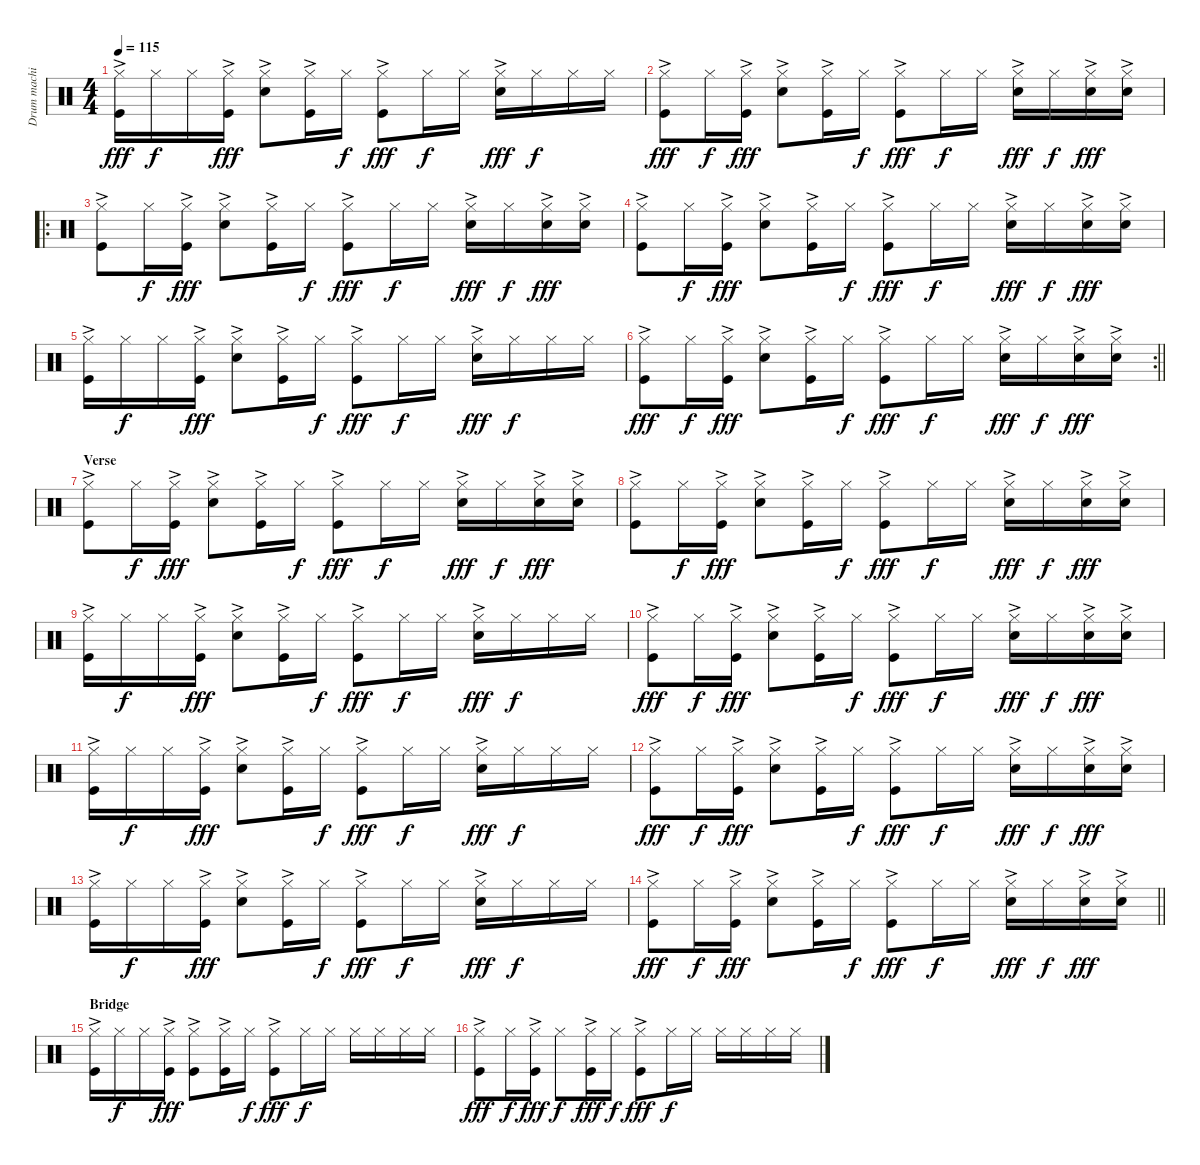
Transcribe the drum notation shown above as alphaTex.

\track ("Drum machine" "Drum machi") {instrument percussion}
\staff {score}
\articulation defaults
\ts (4 4)
\tempo 115
\clef neutral
\ks c
("Hi-Hat (closed)" "Kick (hit)"{ac}).16{dy fff} "Hi-Hat (closed)".16{dy f} "Hi-Hat (closed)".16 ("Hi-Hat (closed)" "Kick (hit)"{ac}).16{dy fff} ("Hi-Hat (closed)" "Snare (hit) 2"{ac}).8 ("Hi-Hat (closed)" "Kick (hit)"{ac}).16 "Hi-Hat (closed)".16{dy f} ("Hi-Hat (closed)" "Kick (hit)"{ac}).8{dy fff} "Hi-Hat (closed)".16{dy f} "Hi-Hat (closed)".16 ("Hi-Hat (closed)" "Snare (hit) 2"{ac}).16{dy fff} "Hi-Hat (closed)".16{dy f} "Hi-Hat (closed)".16 "Hi-Hat (closed)".16 |
("Hi-Hat (closed)" "Kick (hit)"{ac}).8{dy fff} "Hi-Hat (closed)".16{dy f} ("Hi-Hat (closed)" "Kick (hit)"{ac}).16{dy fff} ("Hi-Hat (closed)" "Snare (hit) 2"{ac}).8 ("Hi-Hat (closed)" "Kick (hit)"{ac}).16 "Hi-Hat (closed)".16{dy f} ("Hi-Hat (closed)" "Kick (hit)"{ac}).8{dy fff} "Hi-Hat (closed)".16{dy f} "Hi-Hat (closed)".16 ("Hi-Hat (closed)" "Snare (hit) 2"{ac}).16{dy fff} "Hi-Hat (closed)".16{dy f} ("Hi-Hat (closed)" "Snare (hit) 2"{ac}).16{dy fff} ("Hi-Hat (closed)" "Snare (hit) 2"{ac}).16 |
\ro
("Hi-Hat (closed)" "Kick (hit)"{ac}).8 "Hi-Hat (closed)".16{dy f} ("Hi-Hat (closed)" "Kick (hit)"{ac}).16{dy fff} ("Hi-Hat (closed)" "Snare (hit) 2"{ac}).8 ("Hi-Hat (closed)" "Kick (hit)"{ac}).16 "Hi-Hat (closed)".16{dy f} ("Hi-Hat (closed)" "Kick (hit)"{ac}).8{dy fff} "Hi-Hat (closed)".16{dy f} "Hi-Hat (closed)".16 ("Hi-Hat (closed)" "Snare (hit) 2"{ac}).16{dy fff} "Hi-Hat (closed)".16{dy f} ("Hi-Hat (closed)" "Snare (hit) 2"{ac}).16{dy fff} ("Hi-Hat (closed)" "Snare (hit) 2"{ac}).16 |
("Hi-Hat (closed)" "Kick (hit)"{ac}).8 "Hi-Hat (closed)".16{dy f} ("Hi-Hat (closed)" "Kick (hit)"{ac}).16{dy fff} ("Hi-Hat (closed)" "Snare (hit) 2"{ac}).8 ("Hi-Hat (closed)" "Kick (hit)"{ac}).16 "Hi-Hat (closed)".16{dy f} ("Hi-Hat (closed)" "Kick (hit)"{ac}).8{dy fff} "Hi-Hat (closed)".16{dy f} "Hi-Hat (closed)".16 ("Hi-Hat (closed)" "Snare (hit) 2"{ac}).16{dy fff} "Hi-Hat (closed)".16{dy f} ("Hi-Hat (closed)" "Snare (hit) 2"{ac}).16{dy fff} ("Hi-Hat (closed)" "Snare (hit) 2"{ac}).16 |
("Hi-Hat (closed)" "Kick (hit)"{ac}).16 "Hi-Hat (closed)".16{dy f} "Hi-Hat (closed)".16 ("Hi-Hat (closed)" "Kick (hit)"{ac}).16{dy fff} ("Hi-Hat (closed)" "Snare (hit) 2"{ac}).8 ("Hi-Hat (closed)" "Kick (hit)"{ac}).16 "Hi-Hat (closed)".16{dy f} ("Hi-Hat (closed)" "Kick (hit)"{ac}).8{dy fff} "Hi-Hat (closed)".16{dy f} "Hi-Hat (closed)".16 ("Hi-Hat (closed)" "Snare (hit) 2"{ac}).16{dy fff} "Hi-Hat (closed)".16{dy f} "Hi-Hat (closed)".16 "Hi-Hat (closed)".16 |
\rc 2
\barLineRight lightlight
("Hi-Hat (closed)" "Kick (hit)"{ac}).8{dy fff} "Hi-Hat (closed)".16{dy f} ("Hi-Hat (closed)" "Kick (hit)"{ac}).16{dy fff} ("Hi-Hat (closed)" "Snare (hit) 2"{ac}).8 ("Hi-Hat (closed)" "Kick (hit)"{ac}).16 "Hi-Hat (closed)".16{dy f} ("Hi-Hat (closed)" "Kick (hit)"{ac}).8{dy fff} "Hi-Hat (closed)".16{dy f} "Hi-Hat (closed)".16 ("Hi-Hat (closed)" "Snare (hit) 2"{ac}).16{dy fff} "Hi-Hat (closed)".16{dy f} ("Hi-Hat (closed)" "Snare (hit) 2"{ac}).16{dy fff} ("Hi-Hat (closed)" "Snare (hit) 2"{ac}).16 |
\section ("" "Verse")
("Hi-Hat (closed)" "Kick (hit)"{ac}).8 "Hi-Hat (closed)".16{dy f} ("Hi-Hat (closed)" "Kick (hit)"{ac}).16{dy fff} ("Hi-Hat (closed)" "Snare (hit) 2"{ac}).8 ("Hi-Hat (closed)" "Kick (hit)"{ac}).16 "Hi-Hat (closed)".16{dy f} ("Hi-Hat (closed)" "Kick (hit)"{ac}).8{dy fff} "Hi-Hat (closed)".16{dy f} "Hi-Hat (closed)".16 ("Hi-Hat (closed)" "Snare (hit) 2"{ac}).16{dy fff} "Hi-Hat (closed)".16{dy f} ("Hi-Hat (closed)" "Snare (hit) 2"{ac}).16{dy fff} ("Hi-Hat (closed)" "Snare (hit) 2"{ac}).16 |
("Hi-Hat (closed)" "Kick (hit)"{ac}).8 "Hi-Hat (closed)".16{dy f} ("Hi-Hat (closed)" "Kick (hit)"{ac}).16{dy fff} ("Hi-Hat (closed)" "Snare (hit) 2"{ac}).8 ("Hi-Hat (closed)" "Kick (hit)"{ac}).16 "Hi-Hat (closed)".16{dy f} ("Hi-Hat (closed)" "Kick (hit)"{ac}).8{dy fff} "Hi-Hat (closed)".16{dy f} "Hi-Hat (closed)".16 ("Hi-Hat (closed)" "Snare (hit) 2"{ac}).16{dy fff} "Hi-Hat (closed)".16{dy f} ("Hi-Hat (closed)" "Snare (hit) 2"{ac}).16{dy fff} ("Hi-Hat (closed)" "Snare (hit) 2"{ac}).16 |
("Hi-Hat (closed)" "Kick (hit)"{ac}).16 "Hi-Hat (closed)".16{dy f} "Hi-Hat (closed)".16 ("Hi-Hat (closed)" "Kick (hit)"{ac}).16{dy fff} ("Hi-Hat (closed)" "Snare (hit) 2"{ac}).8 ("Hi-Hat (closed)" "Kick (hit)"{ac}).16 "Hi-Hat (closed)".16{dy f} ("Hi-Hat (closed)" "Kick (hit)"{ac}).8{dy fff} "Hi-Hat (closed)".16{dy f} "Hi-Hat (closed)".16 ("Hi-Hat (closed)" "Snare (hit) 2"{ac}).16{dy fff} "Hi-Hat (closed)".16{dy f} "Hi-Hat (closed)".16 "Hi-Hat (closed)".16 |
("Hi-Hat (closed)" "Kick (hit)"{ac}).8{dy fff} "Hi-Hat (closed)".16{dy f} ("Hi-Hat (closed)" "Kick (hit)"{ac}).16{dy fff} ("Hi-Hat (closed)" "Snare (hit) 2"{ac}).8 ("Hi-Hat (closed)" "Kick (hit)"{ac}).16 "Hi-Hat (closed)".16{dy f} ("Hi-Hat (closed)" "Kick (hit)"{ac}).8{dy fff} "Hi-Hat (closed)".16{dy f} "Hi-Hat (closed)".16 ("Hi-Hat (closed)" "Snare (hit) 2"{ac}).16{dy fff} "Hi-Hat (closed)".16{dy f} ("Hi-Hat (closed)" "Snare (hit) 2"{ac}).16{dy fff} ("Hi-Hat (closed)" "Snare (hit) 2"{ac}).16 |
("Hi-Hat (closed)" "Kick (hit)"{ac}).16 "Hi-Hat (closed)".16{dy f} "Hi-Hat (closed)".16 ("Hi-Hat (closed)" "Kick (hit)"{ac}).16{dy fff} ("Hi-Hat (closed)" "Snare (hit) 2"{ac}).8 ("Hi-Hat (closed)" "Kick (hit)"{ac}).16 "Hi-Hat (closed)".16{dy f} ("Hi-Hat (closed)" "Kick (hit)"{ac}).8{dy fff} "Hi-Hat (closed)".16{dy f} "Hi-Hat (closed)".16 ("Hi-Hat (closed)" "Snare (hit) 2"{ac}).16{dy fff} "Hi-Hat (closed)".16{dy f} "Hi-Hat (closed)".16 "Hi-Hat (closed)".16 |
("Hi-Hat (closed)" "Kick (hit)"{ac}).8{dy fff} "Hi-Hat (closed)".16{dy f} ("Hi-Hat (closed)" "Kick (hit)"{ac}).16{dy fff} ("Hi-Hat (closed)" "Snare (hit) 2"{ac}).8 ("Hi-Hat (closed)" "Kick (hit)"{ac}).16 "Hi-Hat (closed)".16{dy f} ("Hi-Hat (closed)" "Kick (hit)"{ac}).8{dy fff} "Hi-Hat (closed)".16{dy f} "Hi-Hat (closed)".16 ("Hi-Hat (closed)" "Snare (hit) 2"{ac}).16{dy fff} "Hi-Hat (closed)".16{dy f} ("Hi-Hat (closed)" "Snare (hit) 2"{ac}).16{dy fff} ("Hi-Hat (closed)" "Snare (hit) 2"{ac}).16 |
("Hi-Hat (closed)" "Kick (hit)"{ac}).16 "Hi-Hat (closed)".16{dy f} "Hi-Hat (closed)".16 ("Hi-Hat (closed)" "Kick (hit)"{ac}).16{dy fff} ("Hi-Hat (closed)" "Snare (hit) 2"{ac}).8 ("Hi-Hat (closed)" "Kick (hit)"{ac}).16 "Hi-Hat (closed)".16{dy f} ("Hi-Hat (closed)" "Kick (hit)"{ac}).8{dy fff} "Hi-Hat (closed)".16{dy f} "Hi-Hat (closed)".16 ("Hi-Hat (closed)" "Snare (hit) 2"{ac}).16{dy fff} "Hi-Hat (closed)".16{dy f} "Hi-Hat (closed)".16 "Hi-Hat (closed)".16 |
\barLineRight lightlight
("Hi-Hat (closed)" "Kick (hit)"{ac}).8{dy fff} "Hi-Hat (closed)".16{dy f} ("Hi-Hat (closed)" "Kick (hit)"{ac}).16{dy fff} ("Hi-Hat (closed)" "Snare (hit) 2"{ac}).8 ("Hi-Hat (closed)" "Kick (hit)"{ac}).16 "Hi-Hat (closed)".16{dy f} ("Hi-Hat (closed)" "Kick (hit)"{ac}).8{dy fff} "Hi-Hat (closed)".16{dy f} "Hi-Hat (closed)".16 ("Hi-Hat (closed)" "Snare (hit) 2"{ac}).16{dy fff} "Hi-Hat (closed)".16{dy f} ("Hi-Hat (closed)" "Snare (hit) 2"{ac}).16{dy fff} ("Hi-Hat (closed)" "Snare (hit) 2"{ac}).16 |
\section ("" "Bridge")
("Hi-Hat (closed)" "Kick (hit)"{ac}).16 "Hi-Hat (closed)".16{dy f} "Hi-Hat (closed)".16 ("Hi-Hat (closed)" "Kick (hit)"{ac}).16{dy fff} ("Hi-Hat (closed)" "Kick (hit)"{ac}).8 ("Hi-Hat (closed)" "Kick (hit)"{ac}).16 "Hi-Hat (closed)".16{dy f} ("Hi-Hat (closed)" "Kick (hit)"{ac}).8{dy fff} "Hi-Hat (closed)".16{dy f} "Hi-Hat (closed)".16 "Hi-Hat (closed)".16 "Hi-Hat (closed)".16 "Hi-Hat (closed)".16 "Hi-Hat (closed)".16 |
("Hi-Hat (closed)" "Kick (hit)"{ac}).8{dy fff} "Hi-Hat (closed)".16{dy f} ("Hi-Hat (closed)" "Kick (hit)"{ac}).16{dy fff} "Hi-Hat (closed)".8{dy f} ("Hi-Hat (closed)" "Kick (hit)"{ac}).16{dy fff} "Hi-Hat (closed)".16{dy f} ("Hi-Hat (closed)" "Kick (hit)"{ac}).8{dy fff} "Hi-Hat (closed)".16{dy f} "Hi-Hat (closed)".16 "Hi-Hat (closed)".16 "Hi-Hat (closed)".16 "Hi-Hat (closed)".16 "Hi-Hat (closed)".16
